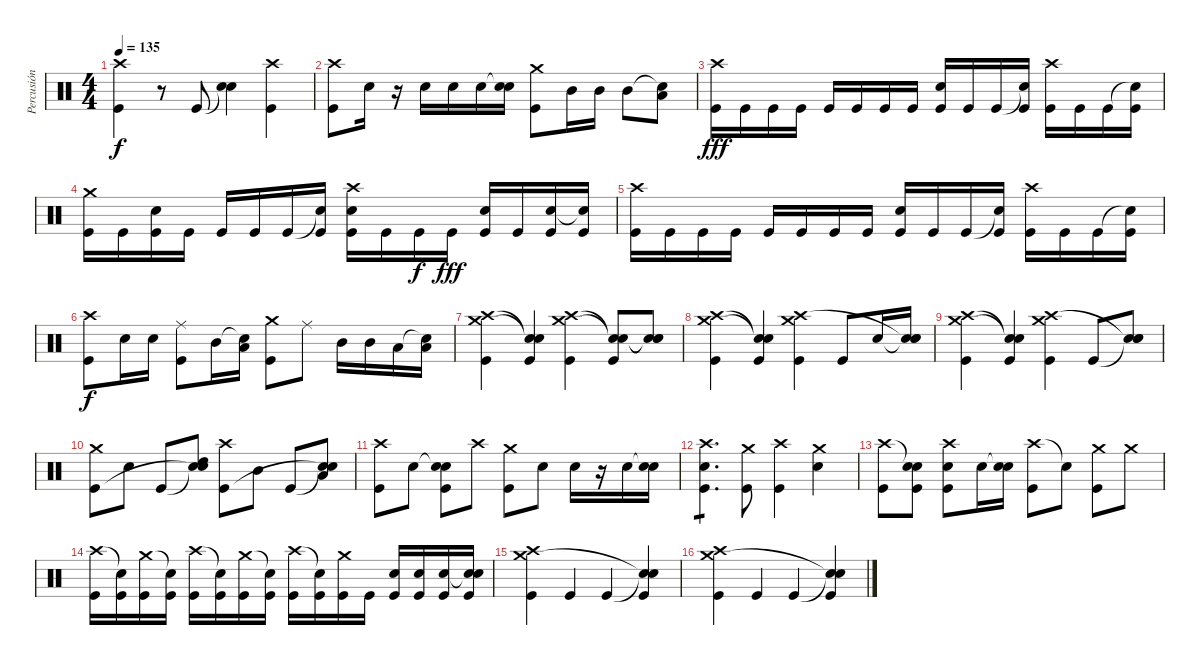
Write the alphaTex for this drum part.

\track ("Percusión" "Percusión") {instrument percussion}
\staff {score}
\articulation defaults
\ts (4 4)
\tempo 135
\clef neutral
\ks c
("Crash high (hit)" "Kick (hit)").4{dy f} r.8 "Kick (hit)".8 ("Snare (hit)"{t} "Snare (hit) 2").4 ("Crash high (hit)" "Kick (hit)").4 |
("Crash high (hit)" "Kick (hit)").8 "Snare (hit) 2".16 r.16 "Snare (hit) 2".16 "Snare (hit) 2".16 "Snare (hit) 2".16 ("Snare (hit)"{t} "Snare (hit) 2").16 ("Crash medium (hit)" "Kick (hit)").8 "Mid Tom (hit)".16 "Mid Tom (hit)".16 "Mid Tom (hit)".8 ("Snare (hit)"{t} "Low Tom (hit)").8 |
("Crash high (hit)" "Kick (hit)").16{dy fff} "Kick (hit)".16 "Kick (hit)".16 "Kick (hit)".16 "Kick (hit)".16 "Kick (hit)".16 "Kick (hit)".16 "Kick (hit)".16 ("Snare (hit) 2" "Kick (hit)").16 "Kick (hit)".16 "Kick (hit)".16 ("Snare (hit)"{t} "Kick (hit)").16 ("Crash high (hit)" "Kick (hit)").16 "Kick (hit)".16 "Kick (hit)".16 ("Snare (hit)"{t} "Kick (hit)").16 |
("Crash medium (hit)" "Kick (hit)").16 "Kick (hit)".16 ("Snare (hit) 2" "Kick (hit)").16 "Kick (hit)".16 "Kick (hit)".16 "Kick (hit)".16 "Kick (hit)".16 ("Snare (hit)"{t} "Kick (hit)").16 ("Crash high (hit)" "Snare (hit) 2" "Kick (hit)").16 "Kick (hit)".16 "Kick (hit)".16{dy f} "Kick (hit)".16{dy fff} ("Snare (hit) 2" "Kick (hit)").16 "Kick (hit)".16 ("Snare (hit) 2" "Kick (hit)").16 ("Snare (hit)"{t} "Kick (hit)").16 |
("Crash high (hit)" "Kick (hit)").16 "Kick (hit)".16 "Kick (hit)".16 "Kick (hit)".16 "Kick (hit)".16 "Kick (hit)".16 "Kick (hit)".16 "Kick (hit)".16 ("Snare (hit) 2" "Kick (hit)").16 "Kick (hit)".16 "Kick (hit)".16 ("Snare (hit)"{t} "Kick (hit)").16 ("Crash high (hit)" "Kick (hit)").16 "Kick (hit)".16 "Kick (hit)".16 ("Snare (hit)"{t} "Kick (hit)").16 |
("Crash high (hit)" "Kick (hit)").8{dy f} "Snare (hit) 2".16 "Snare (hit) 2".16 ("Ride (middle)" "Kick (hit)").8 "Mid Tom (hit)".16 ("Snare (hit)"{t} "Low Tom (hit)").16 ("Crash medium (hit)" "Kick (hit)").8 "Ride (middle)".8 "Mid Tom (hit)".16 "Mid Tom (hit)".16 "Low Tom (hit)".16 ("Snare (hit)"{t} "Low Tom (hit)").16 |
("Crash high (hit)" "Crash medium (hit)" "Kick (hit)").4 ("Snare (hit)"{t} "Snare (hit)"{t} "Kick (hit)").4 ("Crash medium (hit)" "Crash high (hit)" "Kick (hit)").4 ("Snare (hit)"{t} "Snare (hit)"{t} "Kick (hit)").8 ("Snare (hit)"{t} "Snare (hit)"{t} "Snare (hit) 2").8 |
("Crash high (hit)" "Crash medium (hit)" "Kick (hit)").4 ("Snare (hit)"{t} "Snare (hit)"{t} "Kick (hit)").4 ("Crash medium (hit)" "Crash high (hit)" "Kick (hit)").4 "Kick (hit)".8 "Snare (hit) 2".16 ("Snare (hit)"{t} "Snare (hit)"{t} "Snare (hit) 2").16 |
("Crash high (hit)" "Crash medium (hit)" "Kick (hit)").4 ("Snare (hit)"{t} "Snare (hit)"{t} "Kick (hit)").4 ("Crash medium (hit)" "Crash high (hit)" "Kick (hit)").4 "Kick (hit)".8 ("Snare (hit)"{t} "Snare (hit)"{t} "Snare (hit) 2").8 |
("Crash medium (hit)" "Kick (hit)").8 "Snare (hit) 2".8 "Kick (hit)".8 ("Snare (hit)"{t} "Snare (hit)"{t} "High Tom (hit)").8 ("Crash high (hit)" "Kick (hit)").8 "Mid Tom (hit)".8 "Kick (hit)".8 ("Snare (hit)"{t} "Snare (hit)"{t} "Low Tom (hit)").8 |
("Crash high (hit)" "Kick (hit)").8 "Snare (hit) 2".8 ("Snare (hit)"{t} "Snare (hit) 2" "Kick (hit)").8 "Crash high (hit)".8 ("Crash medium (hit)" "Kick (hit)").8 "Snare (hit) 2".8 "Snare (hit) 2".16 r.16 "Snare (hit) 2".16 ("Snare (hit)"{t} "Snare (hit) 2").16 |
("Crash high (hit)" "Snare (hit) 2" "Kick (hit)").4{d tp 1} ("Crash medium (hit)" "Kick (hit)").8 ("Crash high (hit)" "Kick (hit)").4 ("Crash medium (hit)" "Snare (hit) 2").4 |
("Crash high (hit)" "Kick (hit)").8 ("Snare (hit)"{t} "Snare (hit) 2" "Kick (hit)").8 ("Crash high (hit)" "Snare (hit) 2" "Kick (hit)").8 "Snare (hit) 2".16 ("Snare (hit)"{t} "Snare (hit) 2").16 ("Crash high (hit)" "Kick (hit)").8 "Snare (hit)"{t}.8 ("Crash medium (hit)" "Kick (hit)").8 "Crash medium (hit)".8 |
("Crash high (hit)" "Kick (hit)").16 ("Snare (hit)"{t} "Kick (hit)").16 ("Crash medium (hit)" "Kick (hit)").16 ("Snare (hit)"{t} "Kick (hit)").16 ("Crash high (hit)" "Kick (hit)").16 ("Snare (hit)"{t} "Kick (hit)").16 ("Crash medium (hit)" "Kick (hit)").16 ("Snare (hit)"{t} "Kick (hit)").16 ("Crash high (hit)" "Kick (hit)").16 ("Snare (hit)"{t} "Kick (hit)").16 ("Crash medium (hit)" "Kick (hit)").16 "Kick (hit)".16 ("Snare (hit) 2" "Kick (hit)").16 ("Snare (hit) 2" "Kick (hit)").16 ("Snare (hit) 2" "Kick (hit)").16 ("Snare (hit)"{t} "Snare (hit) 2" "Kick (hit)").16 |
("Crash high (hit)" "Crash medium (hit)" "Kick (hit)").4 "Kick (hit)".4 "Kick (hit)".4 ("Snare (hit)"{t} "Snare (hit)"{t} "Kick (hit)").4 |
("Crash high (hit)" "Crash medium (hit)" "Kick (hit)").4 "Kick (hit)".4 "Kick (hit)".4 ("Snare (hit)"{t} "Snare (hit)"{t} "Kick (hit)").4
